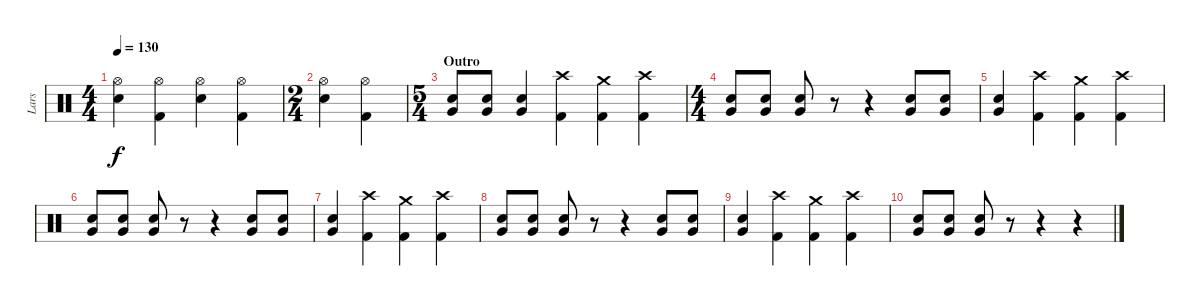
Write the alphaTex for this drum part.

\track ("Lars" "Lars") {instrument percussion}
\staff {score}
\articulation defaults
\ts (4 4)
\tempo 130
\clef neutral
\ks c
("Electric Snare (hit)" "Hi-Hat (open)").4{dy f} ("Kick (hit) 2" "Hi-Hat (open)").4 ("Electric Snare (hit)" "Hi-Hat (open)").4 ("Kick (hit) 2" "Hi-Hat (open)").4 |
\ts (2 4)
("Electric Snare (hit)" "Hi-Hat (open)").4 ("Kick (hit) 2" "Hi-Hat (open)").4 |
\ts (5 4)
\section ("" "Outro")
("Electric Snare (hit)" "Very Low Tom (hit)").8{bu 120} ("Electric Snare (hit)" "Very Low Tom (hit)").8{bu 120} ("Electric Snare (hit)" "Very Low Tom (hit)").4 ("Kick (hit) 2" "Crash high (hit)").4 ("Kick (hit) 2" "Crash medium (hit)").4 ("Kick (hit) 2" "Crash high (hit)").4 |
\ts (4 4)
("Electric Snare (hit)" "Very Low Tom (hit)").8{bu 120} ("Electric Snare (hit)" "Very Low Tom (hit)").8{bu 120} ("Electric Snare (hit)" "Very Low Tom (hit)").8{bu 120} r.8 r.4 ("Electric Snare (hit)" "Very Low Tom (hit)").8{bu 120} ("Electric Snare (hit)" "Very Low Tom (hit)").8{bu 120} |
("Electric Snare (hit)" "Very Low Tom (hit)").4 ("Kick (hit) 2" "Crash high (hit)").4 ("Kick (hit) 2" "Crash medium (hit)").4 ("Kick (hit) 2" "Crash high (hit)").4 |
("Electric Snare (hit)" "Very Low Tom (hit)").8{bu 120} ("Electric Snare (hit)" "Very Low Tom (hit)").8{bu 120} ("Electric Snare (hit)" "Very Low Tom (hit)").8{bu 120} r.8 r.4 ("Electric Snare (hit)" "Very Low Tom (hit)").8{bu 120} ("Electric Snare (hit)" "Very Low Tom (hit)").8{bu 120} |
("Electric Snare (hit)" "Very Low Tom (hit)").4 ("Kick (hit) 2" "Crash high (hit)").4 ("Kick (hit) 2" "Crash medium (hit)").4 ("Kick (hit) 2" "Crash high (hit)").4 |
("Electric Snare (hit)" "Very Low Tom (hit)").8{bu 120} ("Electric Snare (hit)" "Very Low Tom (hit)").8{bu 120} ("Electric Snare (hit)" "Very Low Tom (hit)").8{bu 120} r.8 r.4 ("Electric Snare (hit)" "Very Low Tom (hit)").8{bu 120} ("Electric Snare (hit)" "Very Low Tom (hit)").8{bu 120} |
("Electric Snare (hit)" "Very Low Tom (hit)").4 ("Kick (hit) 2" "Crash high (hit)").4 ("Kick (hit) 2" "Crash medium (hit)").4 ("Kick (hit) 2" "Crash high (hit)").4 |
("Electric Snare (hit)" "Very Low Tom (hit)").8{bu 120} ("Electric Snare (hit)" "Very Low Tom (hit)").8{bu 120} ("Electric Snare (hit)" "Very Low Tom (hit)").8{bu 120} r.8 r.4 r.4
